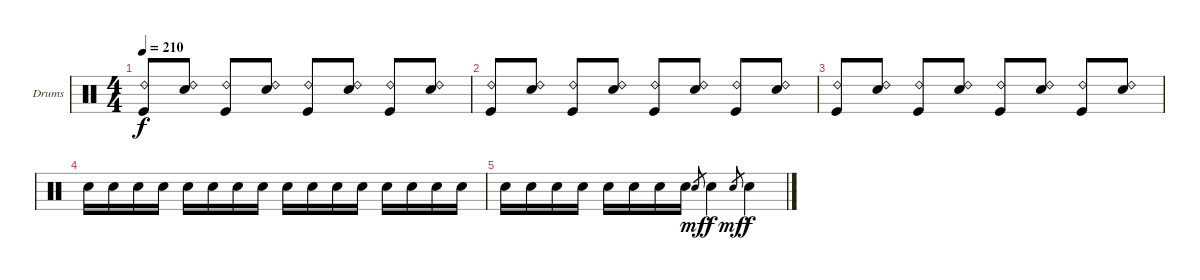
\bracketExtendMode groupsimilarinstruments
\firstSystemTrackNameOrientation horizontal
\otherSystemsTrackNameOrientation horizontal
\track ("Dave Lombardo" "Drums") {instrument percussion}
\staff {score}
\articulation defaults
\ts (4 4)
\tempo 210
\clef neutral
\ks c
("Kick (hit)" "Ride (bell) 2").8{dy f} ("Snare (hit) 2" "Ride (bell) 2").8 ("Kick (hit)" "Ride (bell) 2").8 ("Snare (hit) 2" "Ride (bell) 2").8 ("Kick (hit)" "Ride (bell) 2").8 ("Snare (hit) 2" "Ride (bell) 2").8 ("Kick (hit)" "Ride (bell) 2").8 ("Snare (hit) 2" "Ride (bell) 2").8 |
("Kick (hit)" "Ride (bell) 2").8 ("Snare (hit) 2" "Ride (bell) 2").8 ("Kick (hit)" "Ride (bell) 2").8 ("Snare (hit) 2" "Ride (bell) 2").8 ("Kick (hit)" "Ride (bell) 2").8 ("Snare (hit) 2" "Ride (bell) 2").8 ("Kick (hit)" "Ride (bell) 2").8 ("Snare (hit) 2" "Ride (bell) 2").8 |
("Kick (hit)" "Ride (bell) 2").8 ("Snare (hit) 2" "Ride (bell) 2").8 ("Kick (hit)" "Ride (bell) 2").8 ("Snare (hit) 2" "Ride (bell) 2").8 ("Kick (hit)" "Ride (bell) 2").8 ("Snare (hit) 2" "Ride (bell) 2").8 ("Kick (hit)" "Ride (bell) 2").8 ("Snare (hit) 2" "Ride (bell) 2").8 |
"Snare (hit) 2".16 "Snare (hit) 2".16 "Snare (hit) 2".16 "Snare (hit) 2".16 "Snare (hit) 2".16 "Snare (hit) 2".16 "Snare (hit) 2".16 "Snare (hit) 2".16 "Snare (hit) 2".16 "Snare (hit) 2".16 "Snare (hit) 2".16 "Snare (hit) 2".16 "Snare (hit) 2".16 "Snare (hit) 2".16 "Snare (hit) 2".16 "Snare (hit) 2".16 |
"Snare (hit) 2".16 "Snare (hit) 2".16 "Snare (hit) 2".16 "Snare (hit) 2".16 "Snare (hit) 2".16 "Snare (hit) 2".16 "Snare (hit) 2".16 "Snare (hit) 2".16 "Snare (hit) 2".8{gr dy mf} "Snare (hit) 2".4{dy f} "Snare (hit) 2".8{gr dy mf} "Snare (hit) 2".4{dy f}
